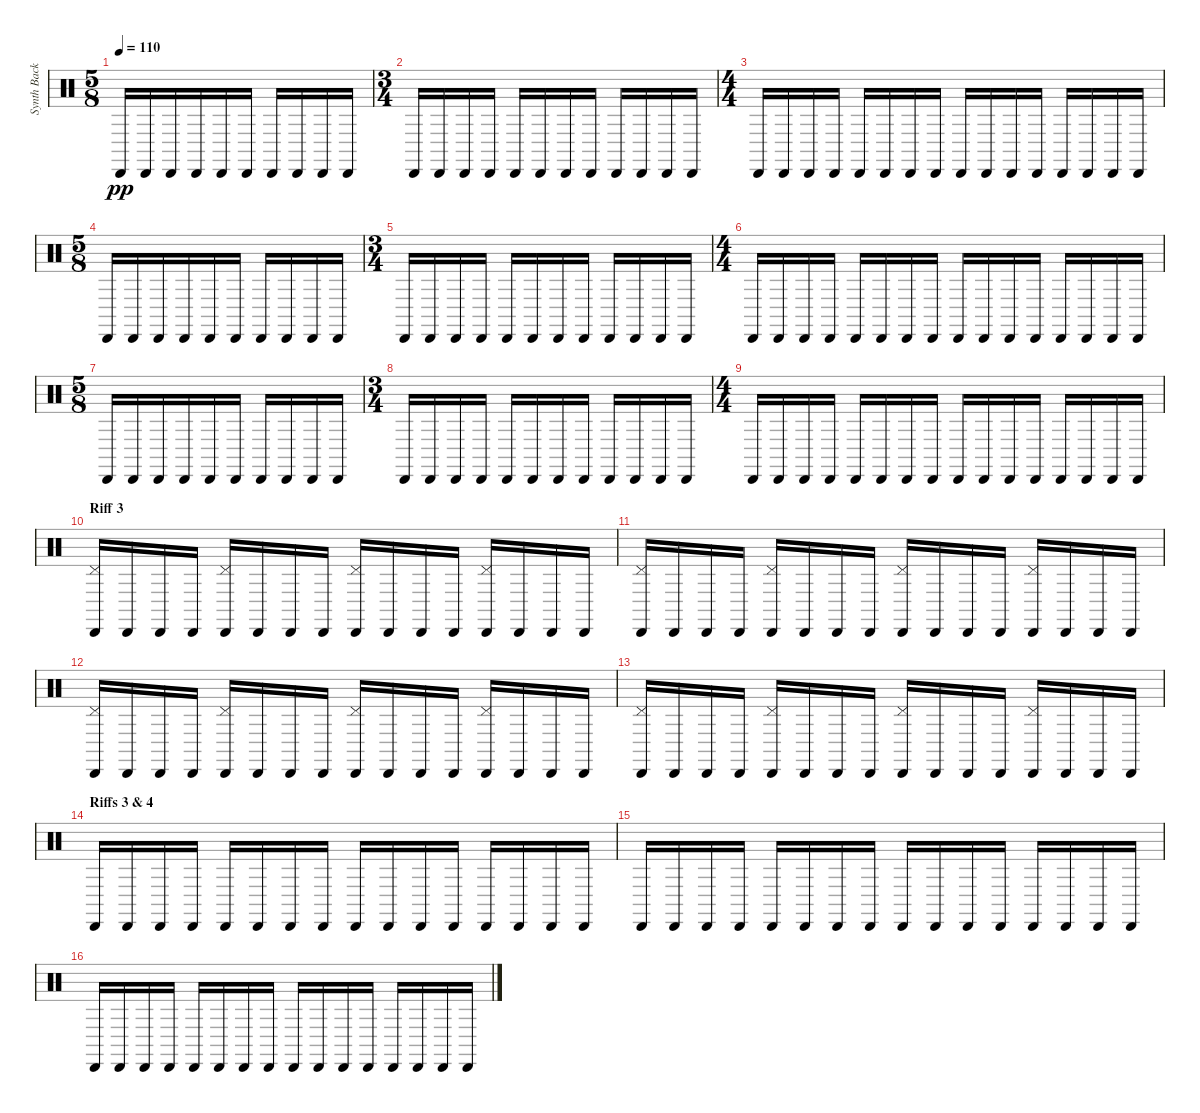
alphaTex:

\track ("Synth Background Rhythm" "Synth Back") {instrument percussion}
\staff {score}
\articulation defaults
\ts (5 8)
\tempo 110
\clef neutral
\ks c "Cabasa (hit)".16{dy pp} "Cabasa (hit)".16 "Cabasa (hit)".16 "Cabasa (hit)".16 "Cabasa (hit)".16 "Cabasa (hit)".16 "Cabasa (hit)".16 "Cabasa (hit)".16 "Cabasa (hit)".16 "Cabasa (hit)".16
|
\ts (3 4)
"Cabasa (hit)".16 "Cabasa (hit)".16 "Cabasa (hit)".16 "Cabasa (hit)".16 "Cabasa (hit)".16 "Cabasa (hit)".16 "Cabasa (hit)".16 "Cabasa (hit)".16 "Cabasa (hit)".16 "Cabasa (hit)".16 "Cabasa (hit)".16 "Cabasa (hit)".16 |
\ts (4 4)
"Cabasa (hit)".16 "Cabasa (hit)".16 "Cabasa (hit)".16 "Cabasa (hit)".16 "Cabasa (hit)".16 "Cabasa (hit)".16 "Cabasa (hit)".16 "Cabasa (hit)".16 "Cabasa (hit)".16 "Cabasa (hit)".16 "Cabasa (hit)".16 "Cabasa (hit)".16 "Cabasa (hit)".16 "Cabasa (hit)".16 "Cabasa (hit)".16 "Cabasa (hit)".16 |
\ts (5 8)
"Cabasa (hit)".16 "Cabasa (hit)".16 "Cabasa (hit)".16 "Cabasa (hit)".16 "Cabasa (hit)".16 "Cabasa (hit)".16 "Cabasa (hit)".16 "Cabasa (hit)".16 "Cabasa (hit)".16 "Cabasa (hit)".16 |
\ts (3 4)
"Cabasa (hit)".16 "Cabasa (hit)".16 "Cabasa (hit)".16 "Cabasa (hit)".16 "Cabasa (hit)".16 "Cabasa (hit)".16 "Cabasa (hit)".16 "Cabasa (hit)".16 "Cabasa (hit)".16 "Cabasa (hit)".16 "Cabasa (hit)".16 "Cabasa (hit)".16 |
\ts (4 4)
"Cabasa (hit)".16 "Cabasa (hit)".16 "Cabasa (hit)".16 "Cabasa (hit)".16 "Cabasa (hit)".16 "Cabasa (hit)".16 "Cabasa (hit)".16 "Cabasa (hit)".16 "Cabasa (hit)".16 "Cabasa (hit)".16 "Cabasa (hit)".16 "Cabasa (hit)".16 "Cabasa (hit)".16 "Cabasa (hit)".16 "Cabasa (hit)".16 "Cabasa (hit)".16 |
\ts (5 8)
"Cabasa (hit)".16 "Cabasa (hit)".16 "Cabasa (hit)".16 "Cabasa (hit)".16 "Cabasa (hit)".16 "Cabasa (hit)".16 "Cabasa (hit)".16 "Cabasa (hit)".16 "Cabasa (hit)".16 "Cabasa (hit)".16 |
\ts (3 4)
"Cabasa (hit)".16 "Cabasa (hit)".16 "Cabasa (hit)".16 "Cabasa (hit)".16 "Cabasa (hit)".16 "Cabasa (hit)".16 "Cabasa (hit)".16 "Cabasa (hit)".16 "Cabasa (hit)".16 "Cabasa (hit)".16 "Cabasa (hit)".16 "Cabasa (hit)".16 |
\ts (4 4)
"Cabasa (hit)".16 "Cabasa (hit)".16 "Cabasa (hit)".16 "Cabasa (hit)".16 "Cabasa (hit)".16 "Cabasa (hit)".16 "Cabasa (hit)".16 "Cabasa (hit)".16 "Cabasa (hit)".16 "Cabasa (hit)".16 "Cabasa (hit)".16 "Cabasa (hit)".16 "Cabasa (hit)".16 "Cabasa (hit)".16 "Cabasa (hit)".16 "Cabasa (hit)".16 |
\section ("" "Riff 3")
("Pedal Hi-Hat (hit)" "Cabasa (hit)").16 "Cabasa (hit)".16 "Cabasa (hit)".16 "Cabasa (hit)".16 ("Pedal Hi-Hat (hit)" "Cabasa (hit)").16 "Cabasa (hit)".16 "Cabasa (hit)".16 "Cabasa (hit)".16 ("Pedal Hi-Hat (hit)" "Cabasa (hit)").16 "Cabasa (hit)".16 "Cabasa (hit)".16 "Cabasa (hit)".16 ("Pedal Hi-Hat (hit)" "Cabasa (hit)").16 "Cabasa (hit)".16 "Cabasa (hit)".16 "Cabasa (hit)".16 |
("Pedal Hi-Hat (hit)" "Cabasa (hit)").16 "Cabasa (hit)".16 "Cabasa (hit)".16 "Cabasa (hit)".16 ("Pedal Hi-Hat (hit)" "Cabasa (hit)").16 "Cabasa (hit)".16 "Cabasa (hit)".16 "Cabasa (hit)".16 ("Pedal Hi-Hat (hit)" "Cabasa (hit)").16 "Cabasa (hit)".16 "Cabasa (hit)".16 "Cabasa (hit)".16 ("Pedal Hi-Hat (hit)" "Cabasa (hit)").16 "Cabasa (hit)".16 "Cabasa (hit)".16 "Cabasa (hit)".16 |
("Pedal Hi-Hat (hit)" "Cabasa (hit)").16 "Cabasa (hit)".16 "Cabasa (hit)".16 "Cabasa (hit)".16 ("Pedal Hi-Hat (hit)" "Cabasa (hit)").16 "Cabasa (hit)".16 "Cabasa (hit)".16 "Cabasa (hit)".16 ("Pedal Hi-Hat (hit)" "Cabasa (hit)").16 "Cabasa (hit)".16 "Cabasa (hit)".16 "Cabasa (hit)".16 ("Pedal Hi-Hat (hit)" "Cabasa (hit)").16 "Cabasa (hit)".16 "Cabasa (hit)".16 "Cabasa (hit)".16 |
("Pedal Hi-Hat (hit)" "Cabasa (hit)").16 "Cabasa (hit)".16 "Cabasa (hit)".16 "Cabasa (hit)".16 ("Pedal Hi-Hat (hit)" "Cabasa (hit)").16 "Cabasa (hit)".16 "Cabasa (hit)".16 "Cabasa (hit)".16 ("Pedal Hi-Hat (hit)" "Cabasa (hit)").16 "Cabasa (hit)".16 "Cabasa (hit)".16 "Cabasa (hit)".16 ("Pedal Hi-Hat (hit)" "Cabasa (hit)").16 "Cabasa (hit)".16 "Cabasa (hit)".16 "Cabasa (hit)".16 |
\section ("" "Riffs 3 & 4")
"Cabasa (hit)".16 "Cabasa (hit)".16 "Cabasa (hit)".16 "Cabasa (hit)".16 "Cabasa (hit)".16 "Cabasa (hit)".16 "Cabasa (hit)".16 "Cabasa (hit)".16 "Cabasa (hit)".16 "Cabasa (hit)".16 "Cabasa (hit)".16 "Cabasa (hit)".16 "Cabasa (hit)".16 "Cabasa (hit)".16 "Cabasa (hit)".16 "Cabasa (hit)".16 |
"Cabasa (hit)".16 "Cabasa (hit)".16 "Cabasa (hit)".16 "Cabasa (hit)".16 "Cabasa (hit)".16 "Cabasa (hit)".16 "Cabasa (hit)".16 "Cabasa (hit)".16 "Cabasa (hit)".16 "Cabasa (hit)".16 "Cabasa (hit)".16 "Cabasa (hit)".16 "Cabasa (hit)".16 "Cabasa (hit)".16 "Cabasa (hit)".16 "Cabasa (hit)".16 |
"Cabasa (hit)".16 "Cabasa (hit)".16 "Cabasa (hit)".16 "Cabasa (hit)".16 "Cabasa (hit)".16 "Cabasa (hit)".16 "Cabasa (hit)".16 "Cabasa (hit)".16 "Cabasa (hit)".16 "Cabasa (hit)".16 "Cabasa (hit)".16 "Cabasa (hit)".16 "Cabasa (hit)".16 "Cabasa (hit)".16 "Cabasa (hit)".16 "Cabasa (hit)".16
